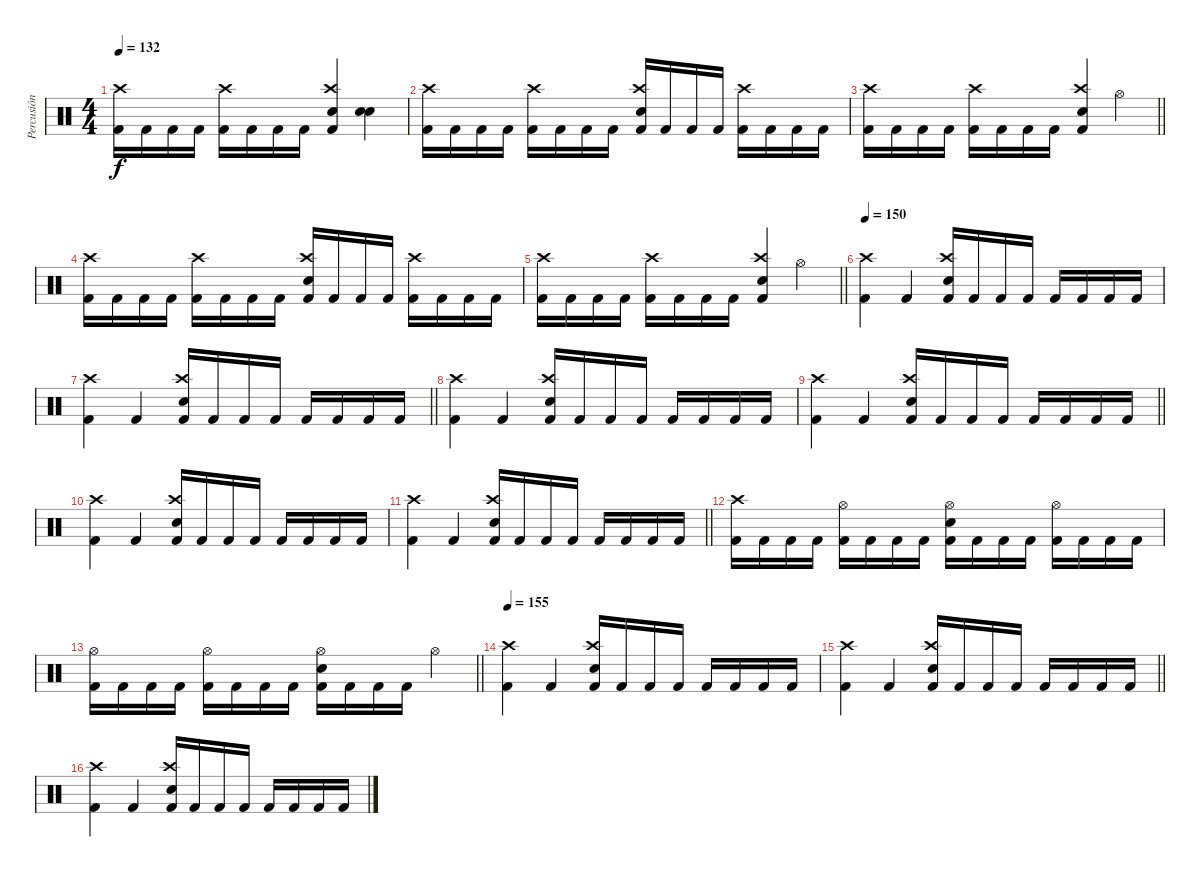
\track ("Percusión" "Percusión") {instrument percussion}
\staff
\articulation defaults
\ts (4 4)
\tempo 132
\clef neutral
\ks c
("Kick (hit) 2" "Crash high (hit)").16{dy f} "Kick (hit) 2".16 "Kick (hit) 2".16 "Kick (hit) 2".16 ("Kick (hit) 2" "Crash high (hit)").16 "Kick (hit) 2".16 "Kick (hit) 2".16 "Kick (hit) 2".16 ("Kick (hit) 2" "Crash high (hit)" "Electric Snare (hit)").4 ("Electric Snare (hit)" "Snare (hit) 2").4 |
("Kick (hit) 2" "Crash high (hit)").16 "Kick (hit) 2".16 "Kick (hit) 2".16 "Kick (hit) 2".16 ("Kick (hit) 2" "Crash high (hit)").16 "Kick (hit) 2".16 "Kick (hit) 2".16 "Kick (hit) 2".16 ("Kick (hit) 2" "Crash high (hit)" "Electric Snare (hit)").16 "Kick (hit) 2".16 "Kick (hit) 2".16 "Kick (hit) 2".16 ("Kick (hit) 2" "Crash high (hit)").16 "Kick (hit) 2".16 "Kick (hit) 2".16 "Kick (hit) 2".16 |
\barLineRight lightlight
("Kick (hit) 2" "Crash high (hit)").16 "Kick (hit) 2".16 "Kick (hit) 2".16 "Kick (hit) 2".16 ("Kick (hit) 2" "Crash high (hit)").16 "Kick (hit) 2".16 "Kick (hit) 2".16 "Kick (hit) 2".16 ("Kick (hit) 2" "Crash high (hit)" "Electric Snare (hit)").4 "Hi-Hat (open)".4 |
("Kick (hit) 2" "Crash high (hit)").16 "Kick (hit) 2".16 "Kick (hit) 2".16 "Kick (hit) 2".16 ("Kick (hit) 2" "Crash high (hit)").16 "Kick (hit) 2".16 "Kick (hit) 2".16 "Kick (hit) 2".16 ("Kick (hit) 2" "Crash high (hit)" "Electric Snare (hit)").16 "Kick (hit) 2".16 "Kick (hit) 2".16 "Kick (hit) 2".16 ("Kick (hit) 2" "Crash high (hit)").16 "Kick (hit) 2".16 "Kick (hit) 2".16 "Kick (hit) 2".16 |
\barLineRight lightlight
("Kick (hit) 2" "Crash high (hit)").16 "Kick (hit) 2".16 "Kick (hit) 2".16 "Kick (hit) 2".16 ("Kick (hit) 2" "Crash high (hit)").16 "Kick (hit) 2".16 "Kick (hit) 2".16 "Kick (hit) 2".16 ("Kick (hit) 2" "Crash high (hit)" "Electric Snare (hit)").4 "Hi-Hat (open)".4 |
\section ("" "")
\tempo 150
("Kick (hit) 2" "Crash high (hit)").4 "Kick (hit) 2".4 ("Kick (hit) 2" "Crash high (hit)" "Electric Snare (hit)").16 "Kick (hit) 2".16 "Kick (hit) 2".16 "Kick (hit) 2".16 "Kick (hit) 2".16 "Kick (hit) 2".16 "Kick (hit) 2".16 "Kick (hit) 2".16 |
\barLineRight lightlight
("Kick (hit) 2" "Crash high (hit)").4 "Kick (hit) 2".4 ("Kick (hit) 2" "Crash high (hit)" "Electric Snare (hit)").16 "Kick (hit) 2".16 "Kick (hit) 2".16 "Kick (hit) 2".16 "Kick (hit) 2".16 "Kick (hit) 2".16 "Kick (hit) 2".16 "Kick (hit) 2".16 |
("Kick (hit) 2" "Crash high (hit)").4 "Kick (hit) 2".4 ("Kick (hit) 2" "Crash high (hit)" "Electric Snare (hit)").16 "Kick (hit) 2".16 "Kick (hit) 2".16 "Kick (hit) 2".16 "Kick (hit) 2".16 "Kick (hit) 2".16 "Kick (hit) 2".16 "Kick (hit) 2".16 |
\barLineRight lightlight
("Kick (hit) 2" "Crash high (hit)").4 "Kick (hit) 2".4 ("Kick (hit) 2" "Crash high (hit)" "Electric Snare (hit)").16 "Kick (hit) 2".16 "Kick (hit) 2".16 "Kick (hit) 2".16 "Kick (hit) 2".16 "Kick (hit) 2".16 "Kick (hit) 2".16 "Kick (hit) 2".16 |
("Kick (hit) 2" "Crash high (hit)").4 "Kick (hit) 2".4 ("Kick (hit) 2" "Crash high (hit)" "Electric Snare (hit)").16 "Kick (hit) 2".16 "Kick (hit) 2".16 "Kick (hit) 2".16 "Kick (hit) 2".16 "Kick (hit) 2".16 "Kick (hit) 2".16 "Kick (hit) 2".16 |
\barLineRight lightlight
("Kick (hit) 2" "Crash high (hit)").4 "Kick (hit) 2".4 ("Kick (hit) 2" "Crash high (hit)" "Electric Snare (hit)").16 "Kick (hit) 2".16 "Kick (hit) 2".16 "Kick (hit) 2".16 "Kick (hit) 2".16 "Kick (hit) 2".16 "Kick (hit) 2".16 "Kick (hit) 2".16 |
("Kick (hit) 2" "Crash high (hit)").16 "Kick (hit) 2".16 "Kick (hit) 2".16 "Kick (hit) 2".16 ("Kick (hit) 2" "Hi-Hat (open)").16 "Kick (hit) 2".16 "Kick (hit) 2".16 "Kick (hit) 2".16 ("Kick (hit) 2" "Hi-Hat (open)" "Electric Snare (hit)").16 "Kick (hit) 2".16 "Kick (hit) 2".16 "Kick (hit) 2".16 ("Kick (hit) 2" "Hi-Hat (open)").16 "Kick (hit) 2".16 "Kick (hit) 2".16 "Kick (hit) 2".16 |
\barLineRight lightlight
("Kick (hit) 2" "Hi-Hat (open)").16 "Kick (hit) 2".16 "Kick (hit) 2".16 "Kick (hit) 2".16 ("Kick (hit) 2" "Hi-Hat (open)").16 "Kick (hit) 2".16 "Kick (hit) 2".16 "Kick (hit) 2".16 ("Kick (hit) 2" "Hi-Hat (open)" "Electric Snare (hit)").16 "Kick (hit) 2".16 "Kick (hit) 2".16 "Kick (hit) 2".16 "Hi-Hat (open)".4 |
\section ("" "")
\tempo 155
("Kick (hit) 2" "Crash high (hit)").4 "Kick (hit) 2".4 ("Kick (hit) 2" "Crash high (hit)" "Electric Snare (hit)").16 "Kick (hit) 2".16 "Kick (hit) 2".16 "Kick (hit) 2".16 "Kick (hit) 2".16 "Kick (hit) 2".16 "Kick (hit) 2".16 "Kick (hit) 2".16 |
\barLineRight lightlight
("Kick (hit) 2" "Crash high (hit)").4 "Kick (hit) 2".4 ("Kick (hit) 2" "Crash high (hit)" "Electric Snare (hit)").16 "Kick (hit) 2".16 "Kick (hit) 2".16 "Kick (hit) 2".16 "Kick (hit) 2".16 "Kick (hit) 2".16 "Kick (hit) 2".16 "Kick (hit) 2".16 |
("Kick (hit) 2" "Crash high (hit)").4 "Kick (hit) 2".4 ("Kick (hit) 2" "Crash high (hit)" "Electric Snare (hit)").16 "Kick (hit) 2".16 "Kick (hit) 2".16 "Kick (hit) 2".16 "Kick (hit) 2".16 "Kick (hit) 2".16 "Kick (hit) 2".16 "Kick (hit) 2".16
